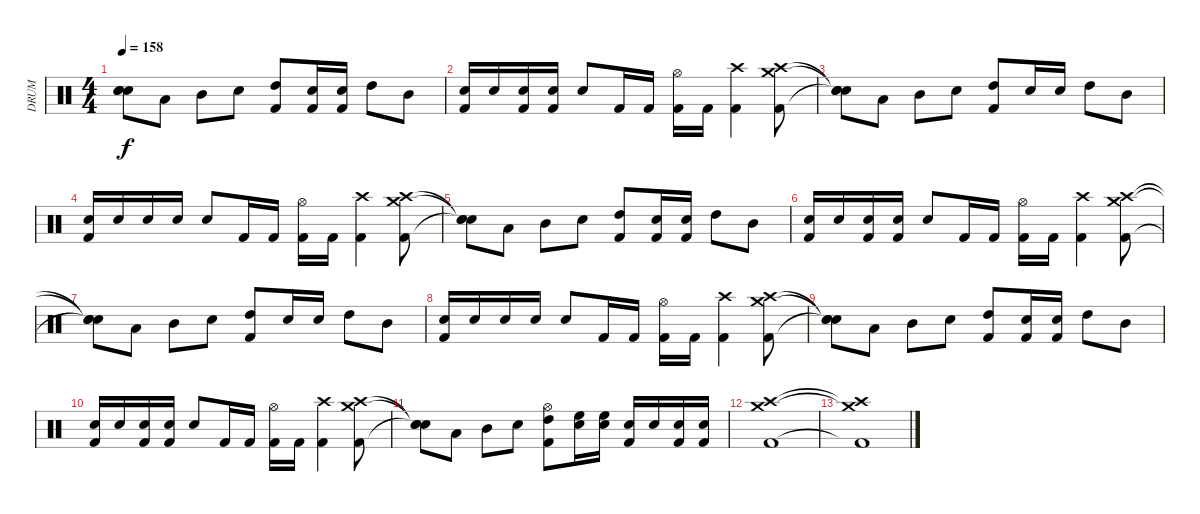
\track ("DRUM" "DRUM") {instrument percussion}
\staff {score}
\articulation defaults
\ts (4 4)
\tempo 158
\clef neutral
\ks c
("Snare (hit)"{t} "Snare (hit)"{t} "Snare (hit)"{t}).8{dy f} "Low Tom (hit)".8 "Mid Tom (hit)".8 "Snare (hit) 2".8 ("High Tom (hit)" "Kick (hit) 2").8 ("Snare (hit) 2" "Kick (hit) 2").16 ("Snare (hit) 2" "Kick (hit) 2").16 "High Tom (hit)".8 "Mid Tom (hit)".8 |
("Electric Snare (hit)" "Kick (hit) 2").16 "Electric Snare (hit)".16 ("Electric Snare (hit)" "Kick (hit) 2").16 ("Electric Snare (hit)" "Kick (hit) 2").16 "Snare (hit) 2".8 "Kick (hit) 2".16 "Kick (hit) 2".16 ("Hi-Hat (open)" "Kick (hit) 2").16 "Kick (hit) 2".16 ("Crash high (hit)" "Kick (hit) 2").4 ("Crash medium (hit)" "Crash high (hit)" "Kick (hit) 2").8 |
("Snare (hit)"{t} "Snare (hit)"{t} "Snare (hit)"{t}).8 "Low Tom (hit)".8 "Mid Tom (hit)".8 "Snare (hit) 2".8 ("High Tom (hit)" "Kick (hit) 2").8 "Snare (hit) 2".16 "Snare (hit) 2".16 "High Tom (hit)".8 "Mid Tom (hit)".8 |
("Electric Snare (hit)" "Kick (hit) 2").16 "Electric Snare (hit)".16 "Electric Snare (hit)".16 "Electric Snare (hit)".16 "Snare (hit) 2".8 "Kick (hit) 2".16 "Kick (hit) 2".16 ("Hi-Hat (open)" "Kick (hit) 2").16 "Kick (hit) 2".16 ("Crash high (hit)" "Kick (hit) 2").4 ("Crash medium (hit)" "Crash high (hit)" "Kick (hit) 2").8 |
("Snare (hit)"{t} "Snare (hit)"{t} "Snare (hit)"{t}).8 "Low Tom (hit)".8 "Mid Tom (hit)".8 "Snare (hit) 2".8 ("High Tom (hit)" "Kick (hit) 2").8 ("Snare (hit) 2" "Kick (hit) 2").16 ("Snare (hit) 2" "Kick (hit) 2").16 "High Tom (hit)".8 "Mid Tom (hit)".8 |
("Electric Snare (hit)" "Kick (hit) 2").16 "Electric Snare (hit)".16 ("Electric Snare (hit)" "Kick (hit) 2").16 ("Electric Snare (hit)" "Kick (hit) 2").16 "Snare (hit) 2".8 "Kick (hit) 2".16 "Kick (hit) 2".16 ("Hi-Hat (open)" "Kick (hit) 2").16 "Kick (hit) 2".16 ("Crash high (hit)" "Kick (hit) 2").4 ("Crash medium (hit)" "Crash high (hit)" "Kick (hit) 2").8 |
("Snare (hit)"{t} "Snare (hit)"{t} "Snare (hit)"{t}).8 "Low Tom (hit)".8 "Mid Tom (hit)".8 "Snare (hit) 2".8 ("High Tom (hit)" "Kick (hit) 2").8 "Snare (hit) 2".16 "Snare (hit) 2".16 "High Tom (hit)".8 "Mid Tom (hit)".8 |
("Electric Snare (hit)" "Kick (hit) 2").16 "Electric Snare (hit)".16 "Electric Snare (hit)".16 "Electric Snare (hit)".16 "Snare (hit) 2".8 "Kick (hit) 2".16 "Kick (hit) 2".16 ("Hi-Hat (open)" "Kick (hit) 2").16 "Kick (hit) 2".16 ("Crash high (hit)" "Kick (hit) 2").4 ("Crash medium (hit)" "Crash high (hit)" "Kick (hit) 2").8 |
("Snare (hit)"{t} "Snare (hit)"{t} "Snare (hit)"{t}).8 "Low Tom (hit)".8 "Mid Tom (hit)".8 "Snare (hit) 2".8 ("High Tom (hit)" "Kick (hit) 2").8 ("Snare (hit) 2" "Kick (hit) 2").16 ("Snare (hit) 2" "Kick (hit) 2").16 "High Tom (hit)".8 "Mid Tom (hit)".8 |
("Electric Snare (hit)" "Kick (hit) 2").16 "Electric Snare (hit)".16 ("Electric Snare (hit)" "Kick (hit) 2").16 ("Electric Snare (hit)" "Kick (hit) 2").16 "Snare (hit) 2".8 "Kick (hit) 2".16 "Kick (hit) 2".16 ("Hi-Hat (open)" "Kick (hit) 2").16 "Kick (hit) 2".16 ("Crash high (hit)" "Kick (hit) 2").4 ("Crash medium (hit)" "Crash high (hit)" "Kick (hit) 2").8 |
("Snare (hit)"{t} "Snare (hit)"{t} "Snare (hit)"{t}).8 "Low Tom (hit)".8 "Mid Tom (hit)".8 "Snare (hit) 2".8 ("Hi-Hat (open)" "High Tom (hit)" "Kick (hit) 2").8 ("High Floor Tom (hit)" "Snare (hit) 2").16 ("High Floor Tom (hit)" "Snare (hit) 2").16 ("Snare (hit) 2" "Kick (hit) 2").16 "Snare (hit) 2".16 ("Snare (hit) 2" "Kick (hit) 2").16 ("Snare (hit) 2" "Kick (hit) 2").16 |
("Crash high (hit)" "Crash medium (hit)" "Kick (hit) 2").1 |
("Crash high (hit)"{t} "Crash medium (hit)"{t} "Kick (hit) 2"{t}).1
